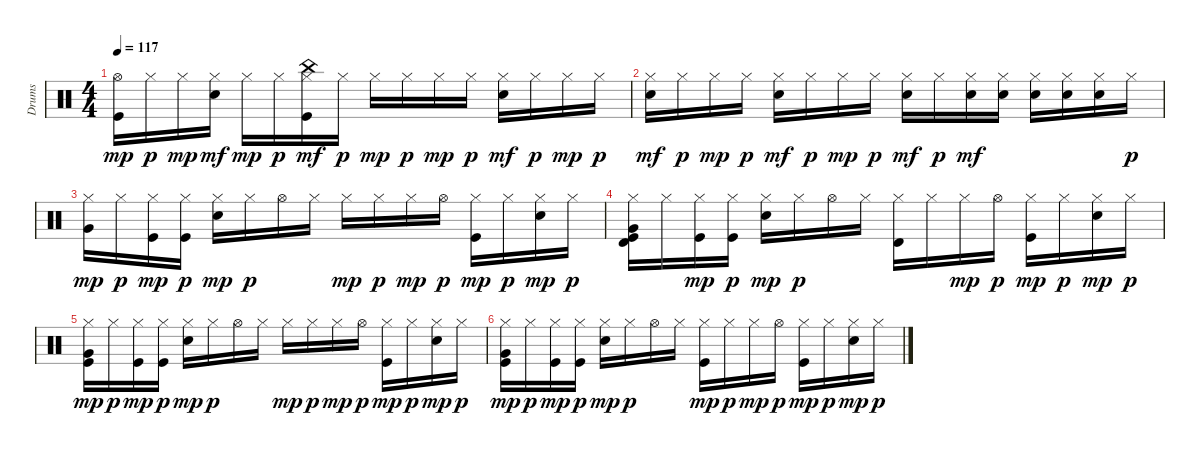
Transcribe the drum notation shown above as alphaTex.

\track ("Drums" "Drums") {instrument percussion}
\staff {score}
\articulation defaults
\ts (4 4)
\tempo 117
\clef neutral
\ks c
("Hi-Hat (open)" "Kick (hit)").16{dy mp} "Hi-Hat (closed)".16{dy p} "Hi-Hat (closed)".16{dy mp} ("Hi-Hat (closed)" "Electric Snare (hit)").16{dy mf} "Hi-Hat (closed)".16{dy mp} "Hi-Hat (closed)".16{dy p} ("Hi-Hat (closed)" "China (hit)" "Kick (hit)").16{dy mf} "Hi-Hat (closed)".16{dy p} "Hi-Hat (closed)".16{dy mp} "Hi-Hat (closed)".16{dy p} "Hi-Hat (closed)".16{dy mp} "Hi-Hat (closed)".16{dy p} ("Hi-Hat (closed)" "Electric Snare (hit)").16{dy mf} "Hi-Hat (closed)".16{dy p} "Hi-Hat (closed)".16{dy mp} "Hi-Hat (closed)".16{dy p} |
("Hi-Hat (closed)" "Electric Snare (hit)").16{dy mf} "Hi-Hat (closed)".16{dy p} "Hi-Hat (closed)".16{dy mp} "Hi-Hat (closed)".16{dy p} ("Hi-Hat (closed)" "Electric Snare (hit)").16{dy mf} "Hi-Hat (closed)".16{dy p} "Hi-Hat (closed)".16{dy mp} "Hi-Hat (closed)".16{dy p} ("Hi-Hat (closed)" "Electric Snare (hit)").16{dy mf} "Hi-Hat (closed)".16{dy p} ("Hi-Hat (closed)" "Electric Snare (hit)").16{dy mf} ("Hi-Hat (closed)" "Electric Snare (hit)").16 ("Hi-Hat (closed)" "Electric Snare (hit)").16 ("Hi-Hat (closed)" "Electric Snare (hit)").16 ("Hi-Hat (closed)" "Electric Snare (hit)").16 "Hi-Hat (closed)".16{dy p} |
("Hi-Hat (closed)" "Very Low Tom (hit)").16{dy mp} "Hi-Hat (closed)".16{dy p} ("Hi-Hat (closed)" "Kick (hit)").16{dy mp} ("Hi-Hat (closed)" "Kick (hit)").16{dy p} ("Hi-Hat (closed)" "Electric Snare (hit)").16{dy mp} "Hi-Hat (closed)".16{dy p} "Hi-Hat (open)".16 "Hi-Hat (closed)".16 "Hi-Hat (closed)".16{dy mp} "Hi-Hat (closed)".16{dy p} "Hi-Hat (closed)".16{dy mp} "Hi-Hat (open)".16{dy p} ("Hi-Hat (closed)" "Kick (hit)").16{dy mp} "Hi-Hat (closed)".16{dy p} ("Hi-Hat (closed)" "Electric Snare (hit)").16{dy mp} "Hi-Hat (closed)".16{dy p} |
("Hi-Hat (closed)" "Timbale high (hit)" "Very Low Tom (hit)" "Kick (hit)").16 "Hi-Hat (closed)".16 ("Hi-Hat (closed)" "Kick (hit)").16{dy mp} ("Hi-Hat (closed)" "Kick (hit)").16{dy p} ("Hi-Hat (closed)" "Electric Snare (hit)").16{dy mp} "Hi-Hat (closed)".16{dy p} "Hi-Hat (open)".16 "Hi-Hat (closed)".16 ("Hi-Hat (closed)" "Timbale high (hit)").16 "Hi-Hat (closed)".16 "Hi-Hat (closed)".16{dy mp} "Hi-Hat (open)".16{dy p} ("Hi-Hat (closed)" "Kick (hit)").16{dy mp} "Hi-Hat (closed)".16{dy p} ("Hi-Hat (closed)" "Electric Snare (hit)").16{dy mp} "Hi-Hat (closed)".16{dy p} |
("Hi-Hat (closed)" "Very Low Tom (hit)" "Kick (hit)").16{dy mp} "Hi-Hat (closed)".16{dy p} ("Hi-Hat (closed)" "Kick (hit)").16{dy mp} ("Hi-Hat (closed)" "Kick (hit)").16{dy p} ("Hi-Hat (closed)" "Electric Snare (hit)").16{dy mp} "Hi-Hat (closed)".16{dy p} "Hi-Hat (open)".16 "Hi-Hat (closed)".16 "Hi-Hat (closed)".16{dy mp} "Hi-Hat (closed)".16{dy p} "Hi-Hat (closed)".16{dy mp} "Hi-Hat (open)".16{dy p} ("Hi-Hat (closed)" "Kick (hit)").16{dy mp} "Hi-Hat (closed)".16{dy p} ("Hi-Hat (closed)" "Electric Snare (hit)").16{dy mp} "Hi-Hat (closed)".16{dy p} |
("Hi-Hat (closed)" "Very Low Tom (hit)" "Kick (hit)").16{dy mp} "Hi-Hat (closed)".16{dy p} ("Hi-Hat (closed)" "Kick (hit)").16{dy mp} ("Hi-Hat (closed)" "Kick (hit)").16{dy p} ("Hi-Hat (closed)" "Electric Snare (hit)").16{dy mp} "Hi-Hat (closed)".16{dy p} "Hi-Hat (open)".16 "Hi-Hat (closed)".16 ("Hi-Hat (closed)" "Kick (hit)").16{dy mp} "Hi-Hat (closed)".16{dy p} "Hi-Hat (closed)".16{dy mp} "Hi-Hat (open)".16{dy p} ("Hi-Hat (closed)" "Kick (hit)").16{dy mp} "Hi-Hat (closed)".16{dy p} ("Hi-Hat (closed)" "Electric Snare (hit)").16{dy mp} "Hi-Hat (closed)".16{dy p}
